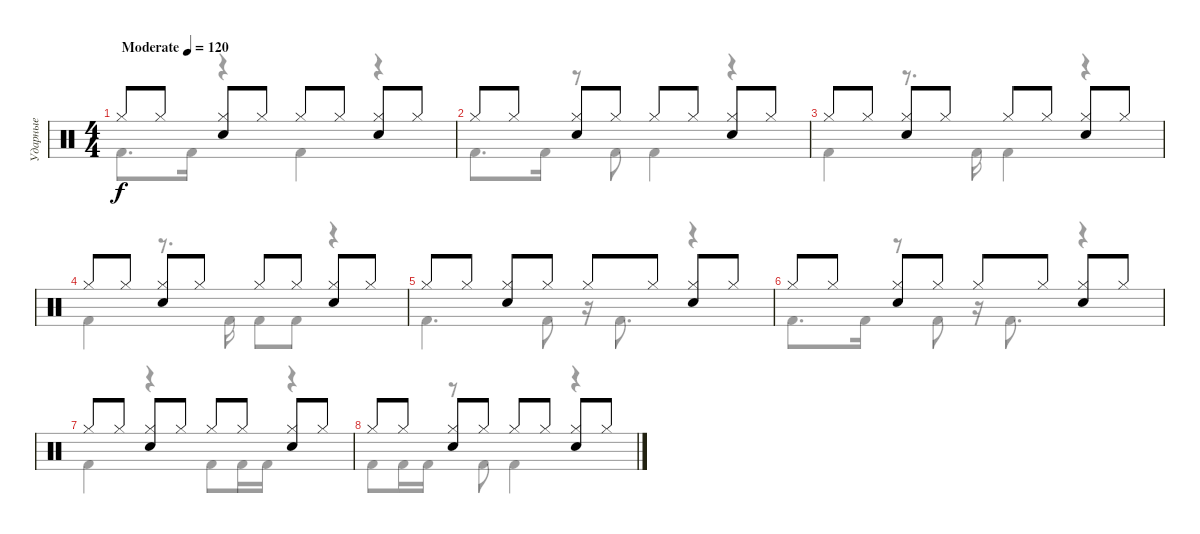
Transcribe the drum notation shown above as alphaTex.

\track ("Ударные" "Ударные") {instrument percussion}
\staff {score}
\articulation defaults
\voice
\ts (4 4)
\tempo (120 "Moderate")
\clef neutral
\ks c "Hi-Hat (closed)".8{dy f} "Hi-Hat (closed)".8
("Hi-Hat (closed)" "Electric Snare (hit)").8 "Hi-Hat (closed)".8 "Hi-Hat (closed)".8 "Hi-Hat (closed)".8 ("Hi-Hat (closed)" "Electric Snare (hit)").8 "Hi-Hat (closed)".8 |
"Hi-Hat (closed)".8 "Hi-Hat (closed)".8 ("Hi-Hat (closed)" "Electric Snare (hit)").8 "Hi-Hat (closed)".8 "Hi-Hat (closed)".8 "Hi-Hat (closed)".8 ("Hi-Hat (closed)" "Electric Snare (hit)").8 "Hi-Hat (closed)".8 |
"Hi-Hat (closed)".8 "Hi-Hat (closed)".8 ("Hi-Hat (closed)" "Electric Snare (hit)").8 "Hi-Hat (closed)".8 "Hi-Hat (closed)".8 "Hi-Hat (closed)".8 ("Hi-Hat (closed)" "Electric Snare (hit)").8 "Hi-Hat (closed)".8 |
"Hi-Hat (closed)".8 "Hi-Hat (closed)".8 ("Hi-Hat (closed)" "Electric Snare (hit)").8 "Hi-Hat (closed)".8 "Hi-Hat (closed)".8 "Hi-Hat (closed)".8 ("Hi-Hat (closed)" "Electric Snare (hit)").8 "Hi-Hat (closed)".8 |
"Hi-Hat (closed)".8 "Hi-Hat (closed)".8 ("Hi-Hat (closed)" "Electric Snare (hit)").8 "Hi-Hat (closed)".8 "Hi-Hat (closed)".8 "Hi-Hat (closed)".8 ("Hi-Hat (closed)" "Electric Snare (hit)").8 "Hi-Hat (closed)".8 |
"Hi-Hat (closed)".8 "Hi-Hat (closed)".8 ("Hi-Hat (closed)" "Electric Snare (hit)").8 "Hi-Hat (closed)".8 "Hi-Hat (closed)".8 "Hi-Hat (closed)".8 ("Hi-Hat (closed)" "Electric Snare (hit)").8 "Hi-Hat (closed)".8 |
"Hi-Hat (closed)".8 "Hi-Hat (closed)".8 ("Hi-Hat (closed)" "Electric Snare (hit)").8 "Hi-Hat (closed)".8 "Hi-Hat (closed)".8 "Hi-Hat (closed)".8 ("Hi-Hat (closed)" "Electric Snare (hit)").8 "Hi-Hat (closed)".8 |
"Hi-Hat (closed)".8 "Hi-Hat (closed)".8 ("Hi-Hat (closed)" "Electric Snare (hit)").8 "Hi-Hat (closed)".8 "Hi-Hat (closed)".8 "Hi-Hat (closed)".8 ("Hi-Hat (closed)" "Electric Snare (hit)").8 "Hi-Hat (closed)".8
\voice
\clef neutral
\ottava regular
\simile none
\ks c "Kick (hit) 2".8{d dy f} "Kick (hit) 2".16
r.4 "Kick (hit) 2".4 r.4 |
"Kick (hit) 2".8{d} "Kick (hit) 2".16 r.8 "Kick (hit) 2".8 "Kick (hit) 2".4 r.4 |
"Kick (hit) 2".4 r.8{d} "Kick (hit) 2".16 "Kick (hit) 2".4 r.4 |
"Kick (hit) 2".4 r.8{d} "Kick (hit) 2".16 "Kick (hit) 2".8 "Kick (hit) 2".8 r.4 |
"Kick (hit) 2".4{d} "Kick (hit) 2".8 r.16 "Kick (hit) 2".8{d} r.4 |
"Kick (hit) 2".8{d} "Kick (hit) 2".16 r.8 "Kick (hit) 2".8 r.16 "Kick (hit) 2".8{d} r.4 |
"Kick (hit) 2".4 r.4 "Kick (hit) 2".8 "Kick (hit) 2".16 "Kick (hit) 2".16 r.4 |
"Kick (hit) 2".8 "Kick (hit) 2".16 "Kick (hit) 2".16 r.8 "Kick (hit) 2".8 "Kick (hit) 2".4 r.4
